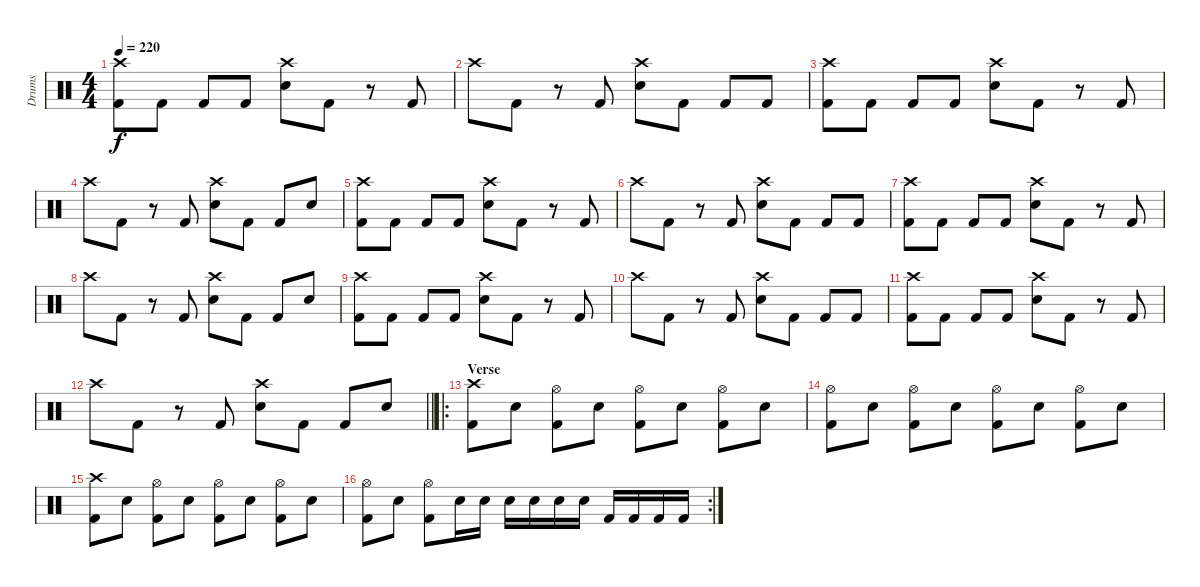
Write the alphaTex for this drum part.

\track ("Drums" "Drums") {instrument percussion}
\staff {score}
\articulation defaults
\ts (4 4)
\tempo 220
\clef neutral
\ks c
("Kick (hit) 2" "Crash high (hit)").8{dy f} "Kick (hit) 2".8 "Kick (hit) 2".8 "Kick (hit) 2".8 ("Electric Snare (hit)" "Crash high (hit)").8 "Kick (hit) 2".8 r.8 "Kick (hit) 2".8 |
"Crash high (hit)".8 "Kick (hit) 2".8 r.8 "Kick (hit) 2".8 ("Electric Snare (hit)" "Crash high (hit)").8 "Kick (hit) 2".8 "Kick (hit) 2".8 "Kick (hit) 2".8 |
("Kick (hit) 2" "Crash high (hit)").8 "Kick (hit) 2".8 "Kick (hit) 2".8 "Kick (hit) 2".8 ("Electric Snare (hit)" "Crash high (hit)").8 "Kick (hit) 2".8 r.8 "Kick (hit) 2".8 |
"Crash high (hit)".8 "Kick (hit) 2".8 r.8 "Kick (hit) 2".8 ("Electric Snare (hit)" "Crash high (hit)").8 "Kick (hit) 2".8 "Kick (hit) 2".8 "Electric Snare (hit)".8 |
("Kick (hit) 2" "Crash high (hit)").8 "Kick (hit) 2".8 "Kick (hit) 2".8 "Kick (hit) 2".8 ("Electric Snare (hit)" "Crash high (hit)").8 "Kick (hit) 2".8 r.8 "Kick (hit) 2".8 |
"Crash high (hit)".8 "Kick (hit) 2".8 r.8 "Kick (hit) 2".8 ("Electric Snare (hit)" "Crash high (hit)").8 "Kick (hit) 2".8 "Kick (hit) 2".8 "Kick (hit) 2".8 |
("Kick (hit) 2" "Crash high (hit)").8 "Kick (hit) 2".8 "Kick (hit) 2".8 "Kick (hit) 2".8 ("Electric Snare (hit)" "Crash high (hit)").8 "Kick (hit) 2".8 r.8 "Kick (hit) 2".8 |
"Crash high (hit)".8 "Kick (hit) 2".8 r.8 "Kick (hit) 2".8 ("Electric Snare (hit)" "Crash high (hit)").8 "Kick (hit) 2".8 "Kick (hit) 2".8 "Electric Snare (hit)".8 |
("Kick (hit) 2" "Crash high (hit)").8 "Kick (hit) 2".8 "Kick (hit) 2".8 "Kick (hit) 2".8 ("Electric Snare (hit)" "Crash high (hit)").8 "Kick (hit) 2".8 r.8 "Kick (hit) 2".8 |
"Crash high (hit)".8 "Kick (hit) 2".8 r.8 "Kick (hit) 2".8 ("Electric Snare (hit)" "Crash high (hit)").8 "Kick (hit) 2".8 "Kick (hit) 2".8 "Kick (hit) 2".8 |
("Kick (hit) 2" "Crash high (hit)").8 "Kick (hit) 2".8 "Kick (hit) 2".8 "Kick (hit) 2".8 ("Electric Snare (hit)" "Crash high (hit)").8 "Kick (hit) 2".8 r.8 "Kick (hit) 2".8 |
\barLineRight lightlight "Crash high (hit)".8 "Kick (hit) 2".8
r.8 "Kick (hit) 2".8 ("Electric Snare (hit)" "Crash high (hit)").8 "Kick (hit) 2".8 "Kick (hit) 2".8 "Electric Snare (hit)".8 |
\ro
\section ("" "Verse")
("Kick (hit) 2" "Crash high (hit)").8 "Electric Snare (hit)".8 ("Kick (hit) 2" "Hi-Hat (open)").8 "Electric Snare (hit)".8 ("Kick (hit) 2" "Hi-Hat (open)").8 "Electric Snare (hit)".8 ("Kick (hit) 2" "Hi-Hat (open)").8 "Electric Snare (hit)".8 |
("Kick (hit) 2" "Hi-Hat (open)").8 "Electric Snare (hit)".8 ("Kick (hit) 2" "Hi-Hat (open)").8 "Electric Snare (hit)".8 ("Kick (hit) 2" "Hi-Hat (open)").8 "Electric Snare (hit)".8 ("Kick (hit) 2" "Hi-Hat (open)").8 "Electric Snare (hit)".8 |
("Kick (hit) 2" "Crash high (hit)").8 "Electric Snare (hit)".8 ("Kick (hit) 2" "Hi-Hat (open)").8 "Electric Snare (hit)".8 ("Kick (hit) 2" "Hi-Hat (open)").8 "Electric Snare (hit)".8 ("Kick (hit) 2" "Hi-Hat (open)").8 "Electric Snare (hit)".8 |
\rc 2
("Kick (hit) 2" "Hi-Hat (open)").8 "Electric Snare (hit)".8 ("Kick (hit) 2" "Hi-Hat (open)").8 "Electric Snare (hit)".16 "Electric Snare (hit)".16 "Electric Snare (hit)".16 "Electric Snare (hit)".16 "Electric Snare (hit)".16 "Electric Snare (hit)".16 "Kick (hit) 2".16 "Kick (hit) 2".16 "Kick (hit) 2".16 "Kick (hit) 2".16
